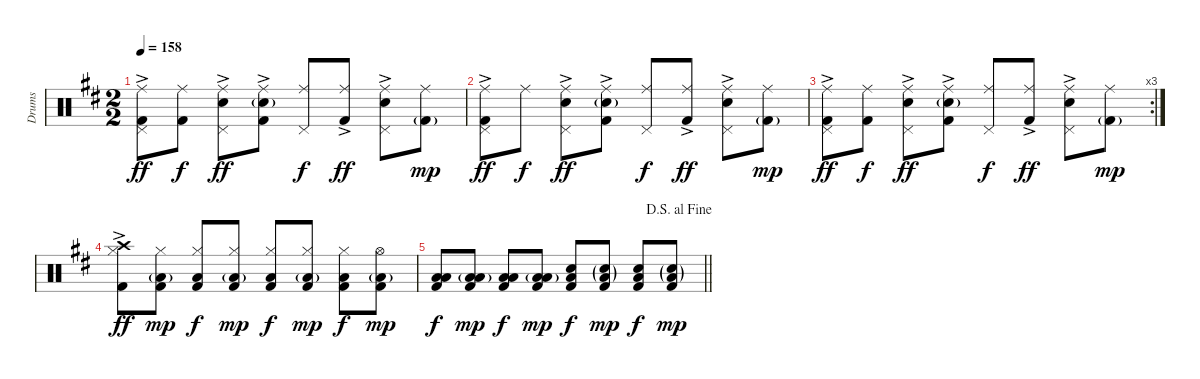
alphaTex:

\track ("Drums" "Drums") {instrument percussion}
\staff {score}
\articulation defaults
\ts (2 2)
\tempo 158
\clef neutral
\ks d
("Ride (middle)" "Pedal Hi-Hat (hit)" "Kick (hit) 2"{ac}).8{dy ff} ("Ride (middle)" "Kick (hit) 2").8{dy f} ("Ride (middle)" "Pedal Hi-Hat (hit)" "Snare (hit) 2"{ac}).8{dy ff} ("Ride (middle)" "Snare (hit) 2"{g} "Kick (hit) 2"{ac}).8 ("Ride (middle)" "Pedal Hi-Hat (hit)").8{dy f} ("Ride (middle)" "Kick (hit) 2"{ac}).8{dy ff} ("Ride (middle)" "Pedal Hi-Hat (hit)" "Snare (hit) 2"{ac}).8 ("Ride (middle)" "Kick (hit) 2"{g}).8{dy mp} |
("Ride (middle)" "Pedal Hi-Hat (hit)" "Kick (hit) 2"{ac}).8{dy ff} "Ride (middle)".8{dy f} ("Ride (middle)" "Pedal Hi-Hat (hit)" "Snare (hit) 2"{ac}).8{dy ff} ("Ride (middle)" "Snare (hit) 2"{g} "Kick (hit) 2"{ac}).8 ("Ride (middle)" "Pedal Hi-Hat (hit)").8{dy f} ("Ride (middle)" "Kick (hit) 2"{ac}).8{dy ff} ("Ride (middle)" "Pedal Hi-Hat (hit)" "Snare (hit) 2"{ac}).8 ("Ride (middle)" "Kick (hit) 2"{g}).8{dy mp} |
\rc 3
("Ride (middle)" "Pedal Hi-Hat (hit)" "Kick (hit) 2"{ac}).8{dy ff} ("Ride (middle)" "Kick (hit) 2").8{dy f} ("Ride (middle)" "Pedal Hi-Hat (hit)" "Snare (hit) 2"{ac}).8{dy ff} ("Ride (middle)" "Snare (hit) 2"{g} "Kick (hit) 2"{ac}).8 ("Ride (middle)" "Pedal Hi-Hat (hit)").8{dy f} ("Ride (middle)" "Kick (hit) 2"{ac}).8{dy ff} ("Ride (middle)" "Pedal Hi-Hat (hit)" "Snare (hit) 2"{ac}).8 ("Ride (middle)" "Kick (hit) 2"{g}).8{dy mp} |
("Hi-Hat (closed)" "Crash high (hit)" "Kick (hit) 2"{ac}).8{dy ff} ("Hi-Hat (closed)" "Low Floor Tom (hit)"{g} "Kick (hit) 2").8{dy mp} ("Hi-Hat (closed)" "Low Floor Tom (hit)" "Kick (hit) 2").8{dy f} ("Hi-Hat (closed)" "Low Floor Tom (hit)"{g} "Kick (hit) 2").8{dy mp} ("Hi-Hat (closed)" "Low Floor Tom (hit)" "Kick (hit) 2").8{dy f} ("Hi-Hat (closed)" "Low Floor Tom (hit)"{g} "Kick (hit) 2").8{dy mp} ("Hi-Hat (closed)" "Low Floor Tom (hit)" "Kick (hit) 2").8{dy f} ("Hi-Hat (open)" "Low Floor Tom (hit)"{g} "Kick (hit) 2").8{dy mp} |
\jump dalsegnoalfine
\barLineRight lightlight
("Low Tom (hit)" "Low Floor Tom (hit)" "Kick (hit) 2").8{dy f} ("Low Tom (hit)"{g} "Low Floor Tom (hit)"{g} "Kick (hit) 2").8{dy mp} ("Low Tom (hit)" "Low Floor Tom (hit)" "Kick (hit) 2").8{dy f} ("Low Tom (hit)"{g} "Low Floor Tom (hit)"{g} "Kick (hit) 2").8{dy mp} ("Snare (hit) 2" "Low Floor Tom (hit)" "Kick (hit) 2").8{dy f} ("Snare (hit) 2"{g} "Low Floor Tom (hit)"{g} "Kick (hit) 2").8{dy mp} ("Snare (hit) 2" "Low Floor Tom (hit)" "Kick (hit) 2").8{dy f} ("Snare (hit) 2"{g} "Low Floor Tom (hit)"{g} "Kick (hit) 2").8{dy mp}
